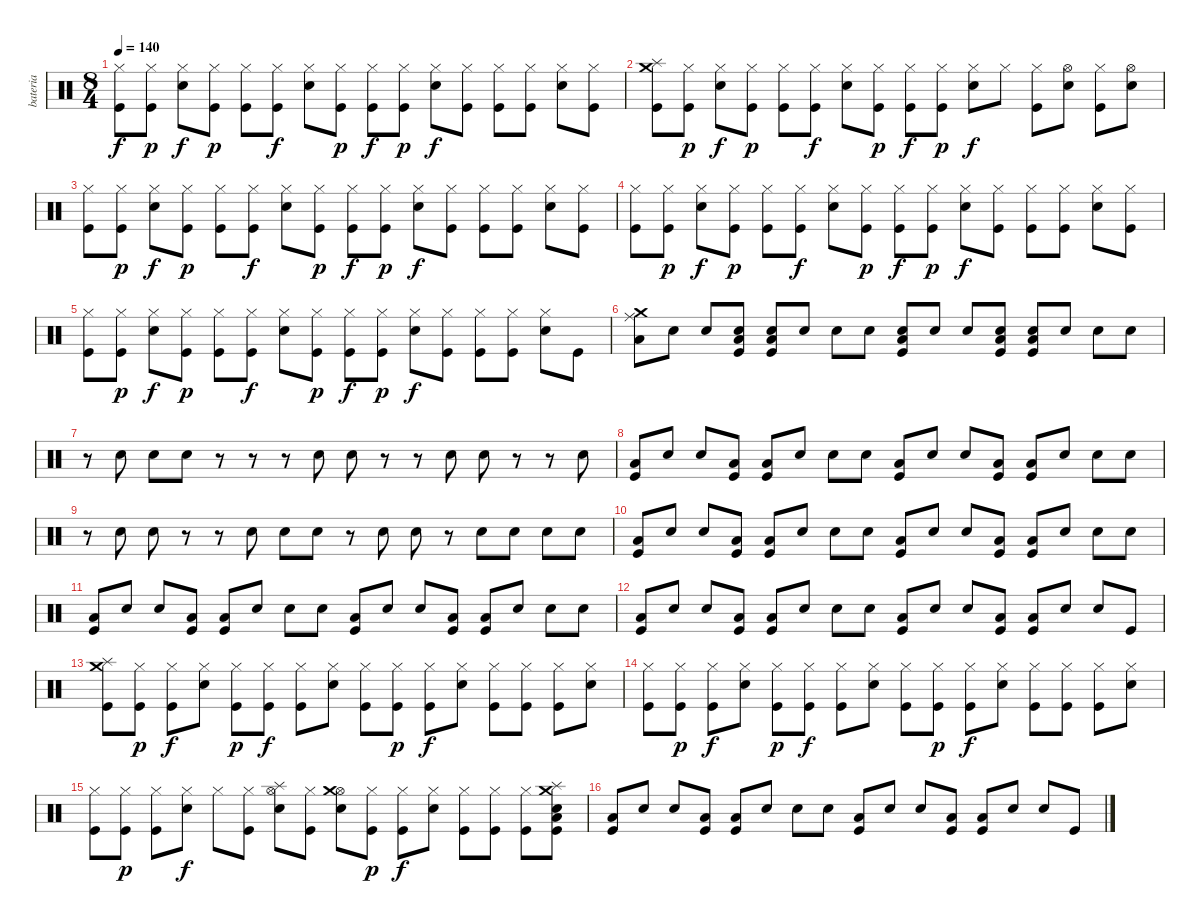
\track ("bateria" "bateria") {instrument percussion}
\staff {score}
\articulation defaults
\ts (8 4)
\tempo 140
\clef neutral
\ks c
("Hi-Hat (closed)" "Kick (hit)").8{dy f} ("Hi-Hat (closed)" "Kick (hit)").8{dy p} ("Hi-Hat (closed)" "Electric Snare (hit)").8{dy f} ("Hi-Hat (closed)" "Kick (hit)").8{dy p} ("Hi-Hat (closed)" "Kick (hit)").8 ("Hi-Hat (closed)" "Kick (hit)").8{dy f} ("Hi-Hat (closed)" "Electric Snare (hit)").8 ("Hi-Hat (closed)" "Kick (hit)").8{dy p} ("Hi-Hat (closed)" "Kick (hit)").8{dy f} ("Hi-Hat (closed)" "Kick (hit)").8{dy p} ("Hi-Hat (closed)" "Electric Snare (hit)").8{dy f} ("Hi-Hat (closed)" "Kick (hit)").8 ("Hi-Hat (closed)" "Kick (hit)").8 ("Hi-Hat (closed)" "Kick (hit)").8 ("Hi-Hat (closed)" "Electric Snare (hit)").8 ("Hi-Hat (closed)" "Kick (hit)").8 |
("Splash (hit)" "Crash medium (hit)" "Kick (hit)").8 ("Hi-Hat (closed)" "Kick (hit)").8{dy p} ("Hi-Hat (closed)" "Electric Snare (hit)").8{dy f} ("Hi-Hat (closed)" "Kick (hit)").8{dy p} ("Hi-Hat (closed)" "Kick (hit)").8 ("Hi-Hat (closed)" "Kick (hit)").8{dy f} ("Hi-Hat (closed)" "Electric Snare (hit)").8 ("Hi-Hat (closed)" "Kick (hit)").8{dy p} ("Hi-Hat (closed)" "Kick (hit)").8{dy f} ("Hi-Hat (closed)" "Kick (hit)").8{dy p} ("Hi-Hat (closed)" "Electric Snare (hit)").8{dy f} "Hi-Hat (closed)".8 ("Hi-Hat (closed)" "Kick (hit)").8 ("Hi-Hat (open)" "Electric Snare (hit)").8 ("Hi-Hat (closed)" "Kick (hit)").8 ("Hi-Hat (open)" "Electric Snare (hit)").8 |
("Hi-Hat (closed)" "Kick (hit)").8 ("Hi-Hat (closed)" "Kick (hit)").8{dy p} ("Hi-Hat (closed)" "Electric Snare (hit)").8{dy f} ("Hi-Hat (closed)" "Kick (hit)").8{dy p} ("Hi-Hat (closed)" "Kick (hit)").8 ("Hi-Hat (closed)" "Kick (hit)").8{dy f} ("Hi-Hat (closed)" "Electric Snare (hit)").8 ("Hi-Hat (closed)" "Kick (hit)").8{dy p} ("Hi-Hat (closed)" "Kick (hit)").8{dy f} ("Hi-Hat (closed)" "Kick (hit)").8{dy p} ("Hi-Hat (closed)" "Electric Snare (hit)").8{dy f} ("Hi-Hat (closed)" "Kick (hit)").8 ("Hi-Hat (closed)" "Kick (hit)").8 ("Hi-Hat (closed)" "Kick (hit)").8 ("Hi-Hat (closed)" "Electric Snare (hit)").8 ("Hi-Hat (closed)" "Kick (hit)").8 |
("Hi-Hat (closed)" "Kick (hit)").8 ("Hi-Hat (closed)" "Kick (hit)").8{dy p} ("Hi-Hat (closed)" "Electric Snare (hit)").8{dy f} ("Hi-Hat (closed)" "Kick (hit)").8{dy p} ("Hi-Hat (closed)" "Kick (hit)").8 ("Hi-Hat (closed)" "Kick (hit)").8{dy f} ("Hi-Hat (closed)" "Electric Snare (hit)").8 ("Hi-Hat (closed)" "Kick (hit)").8{dy p} ("Hi-Hat (closed)" "Kick (hit)").8{dy f} ("Hi-Hat (closed)" "Kick (hit)").8{dy p} ("Hi-Hat (closed)" "Electric Snare (hit)").8{dy f} ("Hi-Hat (closed)" "Kick (hit)").8 ("Hi-Hat (closed)" "Kick (hit)").8 ("Hi-Hat (closed)" "Kick (hit)").8 ("Hi-Hat (closed)" "Electric Snare (hit)").8 ("Hi-Hat (closed)" "Kick (hit)").8 |
("Hi-Hat (closed)" "Kick (hit)").8 ("Hi-Hat (closed)" "Kick (hit)").8{dy p} ("Hi-Hat (closed)" "Electric Snare (hit)").8{dy f} ("Hi-Hat (closed)" "Kick (hit)").8{dy p} ("Hi-Hat (closed)" "Kick (hit)").8 ("Hi-Hat (closed)" "Kick (hit)").8{dy f} ("Hi-Hat (closed)" "Electric Snare (hit)").8 ("Hi-Hat (closed)" "Kick (hit)").8{dy p} ("Hi-Hat (closed)" "Kick (hit)").8{dy f} ("Hi-Hat (closed)" "Kick (hit)").8{dy p} ("Hi-Hat (closed)" "Electric Snare (hit)").8{dy f} ("Hi-Hat (closed)" "Kick (hit)").8 ("Hi-Hat (closed)" "Kick (hit)").8 ("Hi-Hat (closed)" "Kick (hit)").8 ("Hi-Hat (closed)" "Electric Snare (hit)").8 "Kick (hit)".8 |
("Crash medium (hit)" "Ride (middle)" "Low Tom (hit)").8 "Snare (hit)".8 "Snare (hit)".8 ("Kick (hit)" "Low Tom (hit)" "Snare (hit)").8 ("Kick (hit)" "Low Tom (hit)" "Snare (hit)").8 "Snare (hit)".8 "Snare (hit)".8 "Snare (hit)".8 ("Kick (hit)" "Low Tom (hit)" "Snare (hit)").8 "Snare (hit)".8 "Snare (hit)".8 ("Kick (hit)" "Low Tom (hit)" "Snare (hit)").8 ("Kick (hit)" "Low Tom (hit)" "Snare (hit)").8 "Snare (hit)".8 "Snare (hit)".8 "Snare (hit)".8 |
r.8 "Snare (hit)".8 "Snare (hit)".8 "Snare (hit)".8 r.8 r.8 r.8 "Snare (hit)".8 "Snare (hit)".8 r.8 r.8 "Snare (hit)".8 "Snare (hit)".8 r.8 r.8 "Snare (hit)".8 |
("Kick (hit)" "Low Tom (hit)").8 "Snare (hit)".8 "Snare (hit)".8 ("Kick (hit)" "Low Tom (hit)").8 ("Kick (hit)" "Low Tom (hit)").8 "Snare (hit)".8 "Snare (hit)".8 "Snare (hit)".8 ("Kick (hit)" "Low Tom (hit)").8 "Snare (hit)".8 "Snare (hit)".8 ("Kick (hit)" "Low Tom (hit)").8 ("Kick (hit)" "Low Tom (hit)").8 "Snare (hit)".8 "Snare (hit)".8 "Snare (hit)".8 |
r.8 "Snare (hit)".8 "Snare (hit)".8 r.8 r.8 "Snare (hit)".8 "Snare (hit)".8 "Snare (hit)".8 r.8 "Snare (hit)".8 "Snare (hit)".8 r.8 "Snare (hit)".8 "Snare (hit)".8 "Snare (hit)".8 "Snare (hit)".8 |
("Kick (hit)" "Low Tom (hit)").8 "Snare (hit)".8 "Snare (hit)".8 ("Kick (hit)" "Low Tom (hit)").8 ("Kick (hit)" "Low Tom (hit)").8 "Snare (hit)".8 "Snare (hit)".8 "Snare (hit)".8 ("Low Tom (hit)" "Kick (hit)").8 "Snare (hit)".8 "Snare (hit)".8 ("Kick (hit)" "Low Tom (hit)").8 ("Kick (hit)" "Low Tom (hit)").8 "Snare (hit)".8 "Snare (hit)".8 "Snare (hit)".8 |
("Kick (hit)" "Low Tom (hit)").8 "Snare (hit)".8 "Snare (hit)".8 ("Kick (hit)" "Low Tom (hit)").8 ("Kick (hit)" "Low Tom (hit)").8 "Snare (hit)".8 "Snare (hit)".8 "Snare (hit)".8 ("Low Tom (hit)" "Kick (hit)").8 "Snare (hit)".8 "Snare (hit)".8 ("Kick (hit)" "Low Tom (hit)").8 ("Kick (hit)" "Low Tom (hit)").8 "Snare (hit)".8 "Snare (hit)".8 "Snare (hit)".8 |
("Kick (hit)" "Low Tom (hit)").8 "Snare (hit)".8 "Snare (hit)".8 ("Kick (hit)" "Low Tom (hit)").8 ("Kick (hit)" "Low Tom (hit)").8 "Snare (hit)".8 "Snare (hit)".8 "Snare (hit)".8 ("Low Tom (hit)" "Kick (hit)").8 "Snare (hit)".8 "Snare (hit)".8 ("Kick (hit)" "Low Tom (hit)").8 ("Kick (hit)" "Low Tom (hit)").8 "Snare (hit)".8 "Snare (hit)".8 "Kick (hit)".8 |
("Crash medium (hit)" "Splash (hit)" "Kick (hit)").8 ("Hi-Hat (closed)" "Kick (hit)").8{dy p} ("Hi-Hat (closed)" "Kick (hit)").8{dy f} ("Hi-Hat (closed)" "Electric Snare (hit)").8 ("Hi-Hat (closed)" "Kick (hit)").8{dy p} ("Hi-Hat (closed)" "Kick (hit)").8{dy f} ("Hi-Hat (closed)" "Kick (hit)").8 ("Hi-Hat (closed)" "Electric Snare (hit)").8 ("Hi-Hat (closed)" "Kick (hit)").8 ("Hi-Hat (closed)" "Kick (hit)").8{dy p} ("Hi-Hat (closed)" "Kick (hit)").8{dy f} ("Hi-Hat (closed)" "Electric Snare (hit)").8 ("Hi-Hat (closed)" "Kick (hit)").8 ("Hi-Hat (closed)" "Kick (hit)").8 ("Hi-Hat (closed)" "Kick (hit)").8 ("Hi-Hat (closed)" "Electric Snare (hit)").8 |
("Hi-Hat (closed)" "Kick (hit)").8 ("Hi-Hat (closed)" "Kick (hit)").8{dy p} ("Hi-Hat (closed)" "Kick (hit)").8{dy f} ("Hi-Hat (closed)" "Electric Snare (hit)").8 ("Hi-Hat (closed)" "Kick (hit)").8{dy p} ("Hi-Hat (closed)" "Kick (hit)").8{dy f} ("Hi-Hat (closed)" "Kick (hit)").8 ("Hi-Hat (closed)" "Electric Snare (hit)").8 ("Hi-Hat (closed)" "Kick (hit)").8 ("Hi-Hat (closed)" "Kick (hit)").8{dy p} ("Hi-Hat (closed)" "Kick (hit)").8{dy f} ("Hi-Hat (closed)" "Electric Snare (hit)").8 ("Hi-Hat (closed)" "Kick (hit)").8 ("Hi-Hat (closed)" "Kick (hit)").8 ("Hi-Hat (closed)" "Kick (hit)").8 ("Hi-Hat (closed)" "Electric Snare (hit)").8 |
("Hi-Hat (closed)" "Kick (hit)").8 ("Hi-Hat (closed)" "Kick (hit)").8{dy p} ("Hi-Hat (closed)" "Kick (hit)").8 ("Hi-Hat (closed)" "Electric Snare (hit)").8{dy f} "Hi-Hat (closed)".8 ("Hi-Hat (closed)" "Kick (hit)").8 ("Hi-Hat (open)" "Splash (hit)" "Electric Snare (hit)").8 ("Hi-Hat (closed)" "Kick (hit)").8 ("Hi-Hat (open)" "Crash medium (hit)" "Electric Snare (hit)").8 ("Hi-Hat (closed)" "Kick (hit)").8{dy p} ("Hi-Hat (closed)" "Kick (hit)").8{dy f} ("Hi-Hat (closed)" "Electric Snare (hit)").8 ("Hi-Hat (closed)" "Kick (hit)").8 ("Hi-Hat (closed)" "Kick (hit)").8 ("Hi-Hat (closed)" "Kick (hit)").8 ("Splash (hit)" "Crash medium (hit)" "Low Tom (hit)" "Electric Snare (hit)" "Kick (hit)").8 |
("Kick (hit)" "Low Tom (hit)").8 "Snare (hit)".8 "Snare (hit)".8 ("Kick (hit)" "Low Tom (hit)").8 ("Kick (hit)" "Low Tom (hit)").8 "Snare (hit)".8 "Snare (hit)".8 "Snare (hit)".8 ("Low Tom (hit)" "Kick (hit)").8 "Snare (hit)".8 "Snare (hit)".8 ("Kick (hit)" "Low Tom (hit)").8 ("Kick (hit)" "Low Tom (hit)").8 "Snare (hit)".8 "Snare (hit)".8 "Kick (hit)".8
